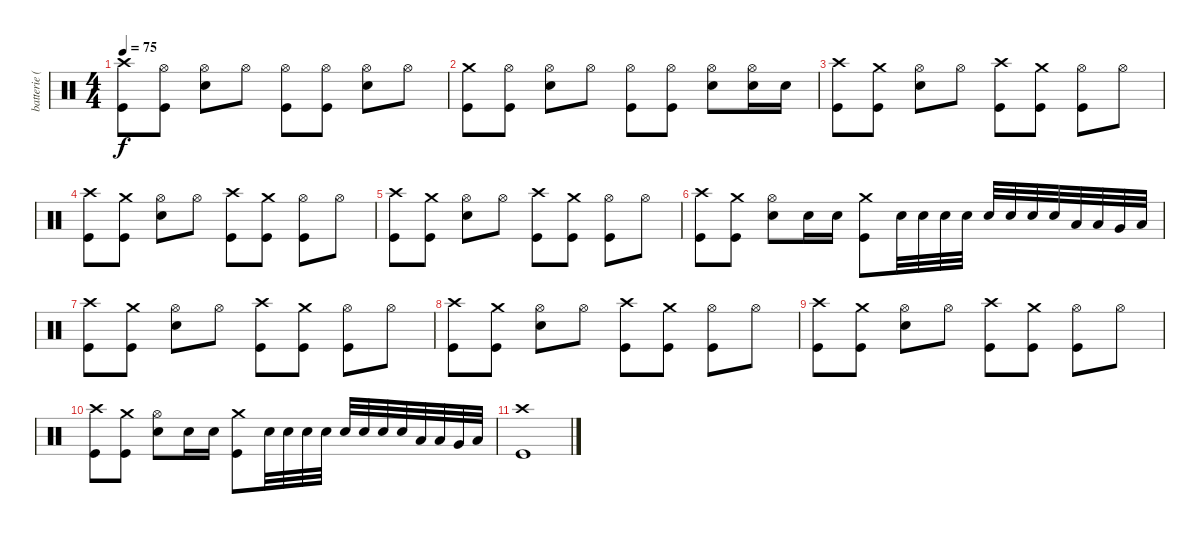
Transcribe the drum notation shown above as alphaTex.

\track ("batterie ( fabien )" "batterie (") {instrument percussion}
\staff {score}
\articulation defaults
\ts (4 4)
\tempo 75
\clef neutral
\ks c
("Crash high (hit)" "Kick (hit)").8{dy f} ("Hi-Hat (open)" "Kick (hit)").8 ("Hi-Hat (open)" "Snare (hit) 2").8 "Hi-Hat (open)".8 ("Hi-Hat (open)" "Kick (hit)").8 ("Hi-Hat (open)" "Kick (hit)").8 ("Hi-Hat (open)" "Snare (hit) 2").8 "Hi-Hat (open)".8 |
("Crash medium (hit)" "Kick (hit)").8 ("Hi-Hat (open)" "Kick (hit)").8 ("Hi-Hat (open)" "Snare (hit) 2").8 "Hi-Hat (open)".8 ("Hi-Hat (open)" "Kick (hit)").8 ("Hi-Hat (open)" "Kick (hit)").8 ("Hi-Hat (open)" "Snare (hit) 2").8 ("Hi-Hat (open)" "Snare (hit) 2").16 "Snare (hit) 2".16 |
("Crash high (hit)" "Kick (hit)").8 ("Crash medium (hit)" "Kick (hit)").8 ("Hi-Hat (open)" "Snare (hit) 2").8 "Hi-Hat (open)".8 ("Crash high (hit)" "Kick (hit)").8 ("Crash medium (hit)" "Kick (hit)").8 ("Hi-Hat (open)" "Kick (hit)").8 "Hi-Hat (open)".8 |
("Crash high (hit)" "Kick (hit)").8 ("Crash medium (hit)" "Kick (hit)").8 ("Hi-Hat (open)" "Snare (hit) 2").8 "Hi-Hat (open)".8 ("Crash high (hit)" "Kick (hit)").8 ("Crash medium (hit)" "Kick (hit)").8 ("Hi-Hat (open)" "Kick (hit)").8 "Hi-Hat (open)".8 |
("Crash high (hit)" "Kick (hit)").8 ("Crash medium (hit)" "Kick (hit)").8 ("Hi-Hat (open)" "Snare (hit) 2").8 "Hi-Hat (open)".8 ("Crash high (hit)" "Kick (hit)").8 ("Crash medium (hit)" "Kick (hit)").8 ("Hi-Hat (open)" "Kick (hit)").8 "Hi-Hat (open)".8 |
("Crash high (hit)" "Kick (hit)").8 ("Crash medium (hit)" "Kick (hit)").8 ("Hi-Hat (open)" "Snare (hit) 2").8 "Snare (hit) 2".16 "Snare (hit) 2".16 ("Crash medium (hit)" "Kick (hit)").8 "Snare (hit) 2".32 "Snare (hit) 2".32 "Snare (hit) 2".32 "Snare (hit) 2".32 "Snare (hit) 2".32 "Snare (hit) 2".32 "Snare (hit) 2".32 "Snare (hit) 2".32 "Low Tom (hit)".32 "Low Tom (hit)".32 "Very Low Tom (hit)".32 "Low Floor Tom (hit)".32 |
("Crash high (hit)" "Kick (hit)").8 ("Crash medium (hit)" "Kick (hit)").8 ("Hi-Hat (open)" "Snare (hit) 2").8 "Hi-Hat (open)".8 ("Crash high (hit)" "Kick (hit)").8 ("Crash medium (hit)" "Kick (hit)").8 ("Hi-Hat (open)" "Kick (hit)").8 "Hi-Hat (open)".8 |
("Crash high (hit)" "Kick (hit)").8 ("Crash medium (hit)" "Kick (hit)").8 ("Hi-Hat (open)" "Snare (hit) 2").8 "Hi-Hat (open)".8 ("Crash high (hit)" "Kick (hit)").8 ("Crash medium (hit)" "Kick (hit)").8 ("Hi-Hat (open)" "Kick (hit)").8 "Hi-Hat (open)".8 |
("Crash high (hit)" "Kick (hit)").8 ("Crash medium (hit)" "Kick (hit)").8 ("Hi-Hat (open)" "Snare (hit) 2").8 "Hi-Hat (open)".8 ("Crash high (hit)" "Kick (hit)").8 ("Crash medium (hit)" "Kick (hit)").8 ("Hi-Hat (open)" "Kick (hit)").8 "Hi-Hat (open)".8 |
("Crash high (hit)" "Kick (hit)").8 ("Crash medium (hit)" "Kick (hit)").8 ("Hi-Hat (open)" "Snare (hit) 2").8 "Snare (hit) 2".16 "Snare (hit) 2".16 ("Crash medium (hit)" "Kick (hit)").8 "Snare (hit) 2".32 "Snare (hit) 2".32 "Snare (hit) 2".32 "Snare (hit) 2".32 "Snare (hit) 2".32 "Snare (hit) 2".32 "Snare (hit) 2".32 "Snare (hit) 2".32 "Low Tom (hit)".32 "Low Tom (hit)".32 "Very Low Tom (hit)".32 "Low Floor Tom (hit)".32 |
("Crash high (hit)" "Kick (hit)").1
